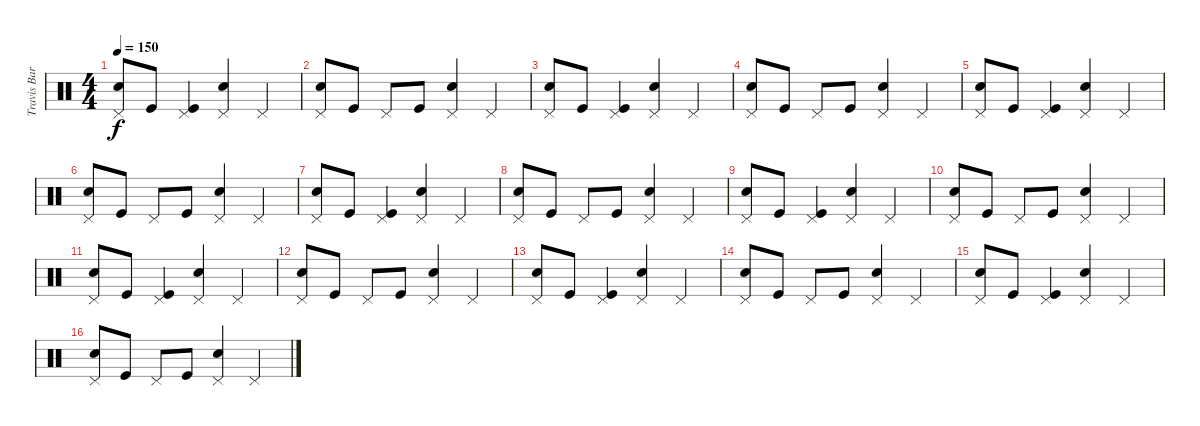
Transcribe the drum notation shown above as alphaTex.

\track ("Travis Barker - Drums" "Travis Bar") {instrument percussion}
\staff {score}
\articulation defaults
\ts (4 4)
\tempo 150
\clef neutral
\ks c
("Pedal Hi-Hat (hit)" "Electric Snare (hit)").8{dy f} "Kick (hit)".8 ("Pedal Hi-Hat (hit)" "Kick (hit)").4 ("Pedal Hi-Hat (hit)" "Electric Snare (hit)").4 "Pedal Hi-Hat (hit)".4 |
("Pedal Hi-Hat (hit)" "Electric Snare (hit)").8 "Kick (hit)".8 "Pedal Hi-Hat (hit)".8 "Kick (hit)".8 ("Pedal Hi-Hat (hit)" "Electric Snare (hit)").4 "Pedal Hi-Hat (hit)".4 |
("Pedal Hi-Hat (hit)" "Electric Snare (hit)").8 "Kick (hit)".8 ("Pedal Hi-Hat (hit)" "Kick (hit)").4 ("Pedal Hi-Hat (hit)" "Electric Snare (hit)").4 "Pedal Hi-Hat (hit)".4 |
("Pedal Hi-Hat (hit)" "Electric Snare (hit)").8 "Kick (hit)".8 "Pedal Hi-Hat (hit)".8 "Kick (hit)".8 ("Pedal Hi-Hat (hit)" "Electric Snare (hit)").4 "Pedal Hi-Hat (hit)".4 |
("Pedal Hi-Hat (hit)" "Electric Snare (hit)").8 "Kick (hit)".8 ("Pedal Hi-Hat (hit)" "Kick (hit)").4 ("Pedal Hi-Hat (hit)" "Electric Snare (hit)").4 "Pedal Hi-Hat (hit)".4 |
("Pedal Hi-Hat (hit)" "Electric Snare (hit)").8 "Kick (hit)".8 "Pedal Hi-Hat (hit)".8 "Kick (hit)".8 ("Pedal Hi-Hat (hit)" "Electric Snare (hit)").4 "Pedal Hi-Hat (hit)".4 |
("Pedal Hi-Hat (hit)" "Electric Snare (hit)").8 "Kick (hit)".8 ("Pedal Hi-Hat (hit)" "Kick (hit)").4 ("Pedal Hi-Hat (hit)" "Electric Snare (hit)").4 "Pedal Hi-Hat (hit)".4 |
("Pedal Hi-Hat (hit)" "Electric Snare (hit)").8 "Kick (hit)".8 "Pedal Hi-Hat (hit)".8 "Kick (hit)".8 ("Pedal Hi-Hat (hit)" "Electric Snare (hit)").4 "Pedal Hi-Hat (hit)".4 |
("Pedal Hi-Hat (hit)" "Electric Snare (hit)").8 "Kick (hit)".8 ("Pedal Hi-Hat (hit)" "Kick (hit)").4 ("Pedal Hi-Hat (hit)" "Electric Snare (hit)").4 "Pedal Hi-Hat (hit)".4 |
("Pedal Hi-Hat (hit)" "Electric Snare (hit)").8 "Kick (hit)".8 "Pedal Hi-Hat (hit)".8 "Kick (hit)".8 ("Pedal Hi-Hat (hit)" "Electric Snare (hit)").4 "Pedal Hi-Hat (hit)".4 |
("Pedal Hi-Hat (hit)" "Electric Snare (hit)").8 "Kick (hit)".8 ("Pedal Hi-Hat (hit)" "Kick (hit)").4 ("Pedal Hi-Hat (hit)" "Electric Snare (hit)").4 "Pedal Hi-Hat (hit)".4 |
("Pedal Hi-Hat (hit)" "Electric Snare (hit)").8 "Kick (hit)".8 "Pedal Hi-Hat (hit)".8 "Kick (hit)".8 ("Pedal Hi-Hat (hit)" "Electric Snare (hit)").4 "Pedal Hi-Hat (hit)".4 |
("Pedal Hi-Hat (hit)" "Electric Snare (hit)").8 "Kick (hit)".8 ("Pedal Hi-Hat (hit)" "Kick (hit)").4 ("Pedal Hi-Hat (hit)" "Electric Snare (hit)").4 "Pedal Hi-Hat (hit)".4 |
("Pedal Hi-Hat (hit)" "Electric Snare (hit)").8 "Kick (hit)".8 "Pedal Hi-Hat (hit)".8 "Kick (hit)".8 ("Pedal Hi-Hat (hit)" "Electric Snare (hit)").4 "Pedal Hi-Hat (hit)".4 |
("Pedal Hi-Hat (hit)" "Electric Snare (hit)").8 "Kick (hit)".8 ("Pedal Hi-Hat (hit)" "Kick (hit)").4 ("Pedal Hi-Hat (hit)" "Electric Snare (hit)").4 "Pedal Hi-Hat (hit)".4 |
("Pedal Hi-Hat (hit)" "Electric Snare (hit)").8 "Kick (hit)".8 "Pedal Hi-Hat (hit)".8 "Kick (hit)".8 ("Pedal Hi-Hat (hit)" "Electric Snare (hit)").4 "Pedal Hi-Hat (hit)".4
